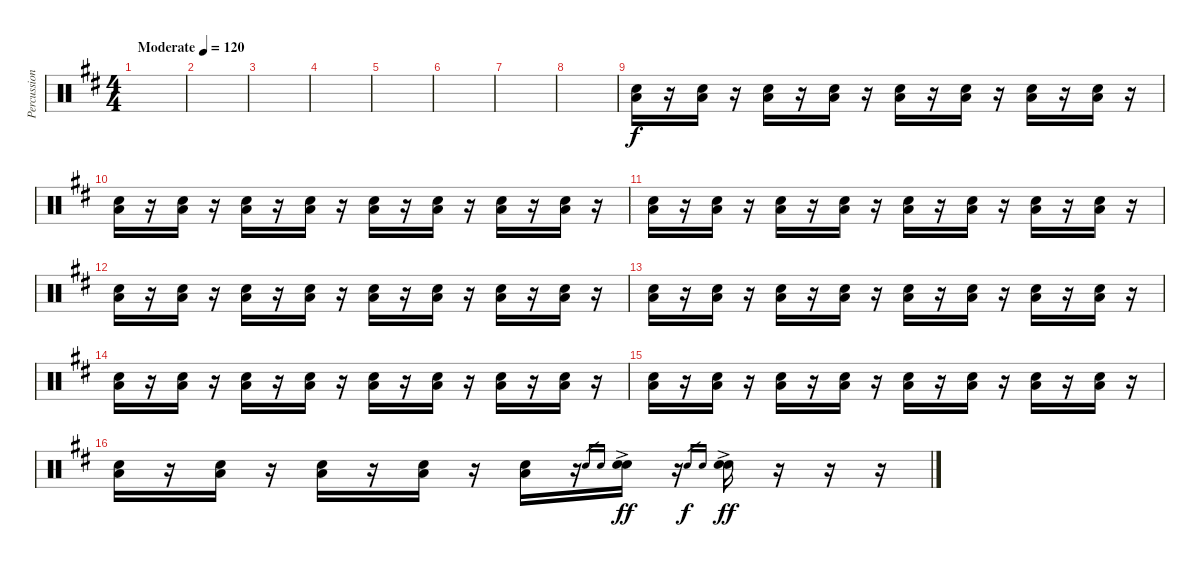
\track ("Percussion" "Percussion") {instrument percussion}
\staff {score}
\articulation defaults
\ts (4 4)
\tempo (120 "Moderate")
\clef neutral
\ks d
|
|
|
|
|
|
|
|
("Low Floor Tom (hit)" "Snare (hit) 2").16{volume 4} r.16 ("Low Floor Tom (hit)" "Snare (hit) 2").16 r.16 ("Low Floor Tom (hit)" "Snare (hit) 2").16 r.16 ("Low Floor Tom (hit)" "Snare (hit) 2").16 r.16 ("Low Floor Tom (hit)" "Snare (hit) 2").16 r.16 ("Low Floor Tom (hit)" "Snare (hit) 2").16 r.16 ("Low Floor Tom (hit)" "Snare (hit) 2").16 r.16 ("Low Floor Tom (hit)" "Snare (hit) 2").16 r.16 |
("Low Floor Tom (hit)" "Snare (hit) 2").16{volume 5} r.16 ("Low Floor Tom (hit)" "Snare (hit) 2").16 r.16 ("Low Floor Tom (hit)" "Snare (hit) 2").16 r.16 ("Low Floor Tom (hit)" "Snare (hit) 2").16 r.16 ("Low Floor Tom (hit)" "Snare (hit) 2").16 r.16 ("Low Floor Tom (hit)" "Snare (hit) 2").16 r.16 ("Low Floor Tom (hit)" "Snare (hit) 2").16 r.16 ("Low Floor Tom (hit)" "Snare (hit) 2").16 r.16 |
("Low Floor Tom (hit)" "Snare (hit) 2").16{volume 6} r.16 ("Low Floor Tom (hit)" "Snare (hit) 2").16 r.16 ("Low Floor Tom (hit)" "Snare (hit) 2").16 r.16 ("Low Floor Tom (hit)" "Snare (hit) 2").16 r.16 ("Low Floor Tom (hit)" "Snare (hit) 2").16 r.16 ("Low Floor Tom (hit)" "Snare (hit) 2").16 r.16 ("Low Floor Tom (hit)" "Snare (hit) 2").16 r.16 ("Low Floor Tom (hit)" "Snare (hit) 2").16 r.16 |
("Low Floor Tom (hit)" "Snare (hit) 2").16{volume 7} r.16 ("Low Floor Tom (hit)" "Snare (hit) 2").16 r.16 ("Low Floor Tom (hit)" "Snare (hit) 2").16 r.16 ("Low Floor Tom (hit)" "Snare (hit) 2").16 r.16 ("Low Floor Tom (hit)" "Snare (hit) 2").16 r.16 ("Low Floor Tom (hit)" "Snare (hit) 2").16 r.16 ("Low Floor Tom (hit)" "Snare (hit) 2").16 r.16 ("Low Floor Tom (hit)" "Snare (hit) 2").16 r.16 |
("Low Floor Tom (hit)" "Snare (hit) 2").16{volume 9} r.16 ("Low Floor Tom (hit)" "Snare (hit) 2").16 r.16 ("Low Floor Tom (hit)" "Snare (hit) 2").16 r.16 ("Low Floor Tom (hit)" "Snare (hit) 2").16 r.16 ("Low Floor Tom (hit)" "Snare (hit) 2").16 r.16 ("Low Floor Tom (hit)" "Snare (hit) 2").16 r.16 ("Low Floor Tom (hit)" "Snare (hit) 2").16 r.16 ("Low Floor Tom (hit)" "Snare (hit) 2").16 r.16 |
("Low Floor Tom (hit)" "Snare (hit) 2").16{volume 11} r.16 ("Low Floor Tom (hit)" "Snare (hit) 2").16 r.16 ("Low Floor Tom (hit)" "Snare (hit) 2").16 r.16 ("Low Floor Tom (hit)" "Snare (hit) 2").16 r.16 ("Low Floor Tom (hit)" "Snare (hit) 2").16 r.16 ("Low Floor Tom (hit)" "Snare (hit) 2").16 r.16 ("Low Floor Tom (hit)" "Snare (hit) 2").16 r.16 ("Low Floor Tom (hit)" "Snare (hit) 2").16 r.16 |
("Low Floor Tom (hit)" "Snare (hit) 2").16{volume 12} r.16 ("Low Floor Tom (hit)" "Snare (hit) 2").16 r.16 ("Low Floor Tom (hit)" "Snare (hit) 2").16 r.16 ("Low Floor Tom (hit)" "Snare (hit) 2").16 r.16 ("Low Floor Tom (hit)" "Snare (hit) 2").16 r.16 ("Low Floor Tom (hit)" "Snare (hit) 2").16 r.16 ("Low Floor Tom (hit)" "Snare (hit) 2").16 r.16 ("Low Floor Tom (hit)" "Snare (hit) 2").16 r.16 |
("Low Floor Tom (hit)" "Snare (hit) 2").16{volume 13} r.16 ("Low Floor Tom (hit)" "Snare (hit) 2").16 r.16 ("Low Floor Tom (hit)" "Snare (hit) 2").16 r.16 ("Low Floor Tom (hit)" "Snare (hit) 2").16 r.16 ("Low Floor Tom (hit)" "Snare (hit) 2").16{volume 14} r.16 "Electric Snare (hit)".16{gr} "Snare (hit) 2".16{gr} ("Electric Snare (hit)"{ac} "Snare (hit) 2"{ac}).16{dy ff} r.16 "Electric Snare (hit)".16{gr dy f} "Snare (hit) 2".16{gr} ("Electric Snare (hit)"{ac} "Snare (hit) 2"{ac}).16{dy ff} r.16 r.16 r.16
